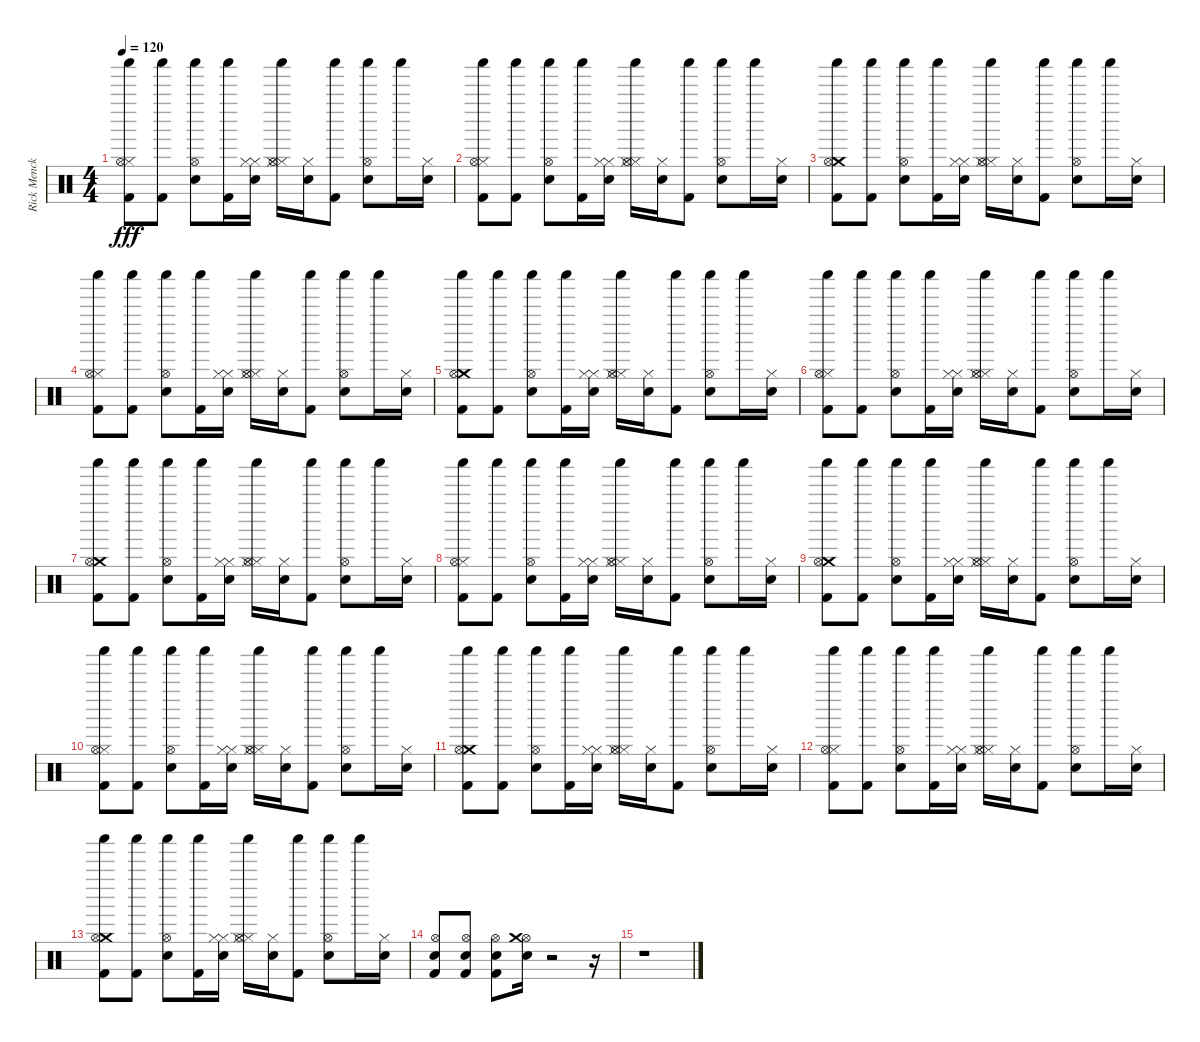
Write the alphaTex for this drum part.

\track ("Rick Menck" "Rick Menck") {instrument percussion}
\staff {score}
\articulation defaults
\ts (4 4)
\tempo 120
\clef neutral
\ks c
("Shaker (hit)" "Kick (hit) 2" "Hi-Hat (closed)" "Hi-Hat (open)").8{dy fff} ("Shaker (hit)" "Kick (hit) 2").8 ("Shaker (hit)" "Snare (hit) 2" "Hi-Hat (open)").8 ("Shaker (hit)" "Kick (hit) 2").16 ("Hi-Hat (closed)" "Snare (hit) 2" "Hi-Hat (closed)").16 ("Shaker (hit)" "Hi-Hat (closed)" "Hi-Hat (open)" "Hi-Hat (closed)").16 ("Hi-Hat (closed)" "Snare (hit) 2").16 ("Shaker (hit)" "Kick (hit) 2").8 ("Shaker (hit)" "Snare (hit) 2" "Hi-Hat (open)").8 "Shaker (hit)".16 ("Hi-Hat (closed)" "Snare (hit) 2").16 |
("Shaker (hit)" "Kick (hit) 2" "Hi-Hat (closed)" "Hi-Hat (open)").8 ("Shaker (hit)" "Kick (hit) 2").8 ("Shaker (hit)" "Snare (hit) 2" "Hi-Hat (open)").8 ("Shaker (hit)" "Kick (hit) 2").16 ("Hi-Hat (closed)" "Snare (hit) 2" "Hi-Hat (closed)").16 ("Shaker (hit)" "Hi-Hat (closed)" "Hi-Hat (open)" "Hi-Hat (closed)").16 ("Hi-Hat (closed)" "Snare (hit) 2").16 ("Shaker (hit)" "Kick (hit) 2").8 ("Shaker (hit)" "Snare (hit) 2" "Hi-Hat (open)").8 "Shaker (hit)".16 ("Hi-Hat (closed)" "Snare (hit) 2").16 |
("Shaker (hit)" "Kick (hit) 2" "Crash medium (hit)" "Hi-Hat (open)").8 ("Shaker (hit)" "Kick (hit) 2").8 ("Shaker (hit)" "Snare (hit) 2" "Hi-Hat (open)").8 ("Shaker (hit)" "Kick (hit) 2").16 ("Hi-Hat (closed)" "Snare (hit) 2" "Hi-Hat (closed)").16 ("Shaker (hit)" "Hi-Hat (closed)" "Hi-Hat (open)" "Hi-Hat (closed)").16 ("Hi-Hat (closed)" "Snare (hit) 2").16 ("Shaker (hit)" "Kick (hit) 2").8 ("Shaker (hit)" "Snare (hit) 2" "Hi-Hat (open)").8 "Shaker (hit)".16 ("Hi-Hat (closed)" "Snare (hit) 2").16 |
("Shaker (hit)" "Kick (hit) 2" "Hi-Hat (closed)" "Hi-Hat (open)").8 ("Shaker (hit)" "Kick (hit) 2").8 ("Shaker (hit)" "Snare (hit) 2" "Hi-Hat (open)").8 ("Shaker (hit)" "Kick (hit) 2").16 ("Hi-Hat (closed)" "Snare (hit) 2" "Hi-Hat (closed)").16 ("Shaker (hit)" "Hi-Hat (closed)" "Hi-Hat (open)" "Hi-Hat (closed)").16 ("Hi-Hat (closed)" "Snare (hit) 2").16 ("Shaker (hit)" "Kick (hit) 2").8 ("Shaker (hit)" "Snare (hit) 2" "Hi-Hat (open)").8 "Shaker (hit)".16 ("Hi-Hat (closed)" "Snare (hit) 2").16 |
("Shaker (hit)" "Kick (hit) 2" "Crash medium (hit)" "Hi-Hat (open)").8 ("Shaker (hit)" "Kick (hit) 2").8 ("Shaker (hit)" "Snare (hit) 2" "Hi-Hat (open)").8 ("Shaker (hit)" "Kick (hit) 2").16 ("Hi-Hat (closed)" "Snare (hit) 2" "Hi-Hat (closed)").16 ("Shaker (hit)" "Hi-Hat (closed)" "Hi-Hat (open)" "Hi-Hat (closed)").16 ("Hi-Hat (closed)" "Snare (hit) 2").16 ("Shaker (hit)" "Kick (hit) 2").8 ("Shaker (hit)" "Snare (hit) 2" "Hi-Hat (open)").8 "Shaker (hit)".16 ("Hi-Hat (closed)" "Snare (hit) 2").16 |
("Shaker (hit)" "Kick (hit) 2" "Hi-Hat (closed)" "Hi-Hat (open)").8 ("Shaker (hit)" "Kick (hit) 2").8 ("Shaker (hit)" "Snare (hit) 2" "Hi-Hat (open)").8 ("Shaker (hit)" "Kick (hit) 2").16 ("Hi-Hat (closed)" "Snare (hit) 2" "Hi-Hat (closed)").16 ("Shaker (hit)" "Hi-Hat (closed)" "Hi-Hat (open)" "Hi-Hat (closed)").16 ("Hi-Hat (closed)" "Snare (hit) 2").16 ("Shaker (hit)" "Kick (hit) 2").8 ("Shaker (hit)" "Snare (hit) 2" "Hi-Hat (open)").8 "Shaker (hit)".16 ("Hi-Hat (closed)" "Snare (hit) 2").16 |
("Shaker (hit)" "Kick (hit) 2" "Crash medium (hit)" "Hi-Hat (open)").8 ("Shaker (hit)" "Kick (hit) 2").8 ("Shaker (hit)" "Snare (hit) 2" "Hi-Hat (open)").8 ("Shaker (hit)" "Kick (hit) 2").16 ("Hi-Hat (closed)" "Snare (hit) 2" "Hi-Hat (closed)").16 ("Shaker (hit)" "Hi-Hat (closed)" "Hi-Hat (open)" "Hi-Hat (closed)").16 ("Hi-Hat (closed)" "Snare (hit) 2").16 ("Shaker (hit)" "Kick (hit) 2").8 ("Shaker (hit)" "Snare (hit) 2" "Hi-Hat (open)").8 "Shaker (hit)".16 ("Hi-Hat (closed)" "Snare (hit) 2").16 |
("Shaker (hit)" "Kick (hit) 2" "Hi-Hat (closed)" "Hi-Hat (open)").8 ("Shaker (hit)" "Kick (hit) 2").8 ("Shaker (hit)" "Snare (hit) 2" "Hi-Hat (open)").8 ("Shaker (hit)" "Kick (hit) 2").16 ("Hi-Hat (closed)" "Snare (hit) 2" "Hi-Hat (closed)").16 ("Shaker (hit)" "Hi-Hat (closed)" "Hi-Hat (open)" "Hi-Hat (closed)").16 ("Hi-Hat (closed)" "Snare (hit) 2").16 ("Shaker (hit)" "Kick (hit) 2").8 ("Shaker (hit)" "Snare (hit) 2" "Hi-Hat (open)").8 "Shaker (hit)".16 ("Hi-Hat (closed)" "Snare (hit) 2").16 |
("Shaker (hit)" "Kick (hit) 2" "Crash medium (hit)" "Hi-Hat (open)").8 ("Shaker (hit)" "Kick (hit) 2").8 ("Shaker (hit)" "Snare (hit) 2" "Hi-Hat (open)").8 ("Shaker (hit)" "Kick (hit) 2").16 ("Hi-Hat (closed)" "Snare (hit) 2" "Hi-Hat (closed)").16 ("Shaker (hit)" "Hi-Hat (closed)" "Hi-Hat (open)" "Hi-Hat (closed)").16 ("Hi-Hat (closed)" "Snare (hit) 2").16 ("Shaker (hit)" "Kick (hit) 2").8 ("Shaker (hit)" "Snare (hit) 2" "Hi-Hat (open)").8 "Shaker (hit)".16 ("Hi-Hat (closed)" "Snare (hit) 2").16 |
("Shaker (hit)" "Kick (hit) 2" "Hi-Hat (closed)" "Hi-Hat (open)").8 ("Shaker (hit)" "Kick (hit) 2").8 ("Shaker (hit)" "Snare (hit) 2" "Hi-Hat (open)").8 ("Shaker (hit)" "Kick (hit) 2").16 ("Hi-Hat (closed)" "Snare (hit) 2" "Hi-Hat (closed)").16 ("Shaker (hit)" "Hi-Hat (closed)" "Hi-Hat (open)" "Hi-Hat (closed)").16 ("Hi-Hat (closed)" "Snare (hit) 2").16 ("Shaker (hit)" "Kick (hit) 2").8 ("Shaker (hit)" "Snare (hit) 2" "Hi-Hat (open)").8 "Shaker (hit)".16 ("Hi-Hat (closed)" "Snare (hit) 2").16 |
("Shaker (hit)" "Kick (hit) 2" "Crash medium (hit)" "Hi-Hat (open)").8 ("Shaker (hit)" "Kick (hit) 2").8 ("Shaker (hit)" "Snare (hit) 2" "Hi-Hat (open)").8 ("Shaker (hit)" "Kick (hit) 2").16 ("Hi-Hat (closed)" "Snare (hit) 2" "Hi-Hat (closed)").16 ("Shaker (hit)" "Hi-Hat (closed)" "Hi-Hat (open)" "Hi-Hat (closed)").16 ("Hi-Hat (closed)" "Snare (hit) 2").16 ("Shaker (hit)" "Kick (hit) 2").8 ("Shaker (hit)" "Snare (hit) 2" "Hi-Hat (open)").8 "Shaker (hit)".16 ("Hi-Hat (closed)" "Snare (hit) 2").16 |
("Shaker (hit)" "Kick (hit) 2" "Hi-Hat (closed)" "Hi-Hat (open)").8 ("Shaker (hit)" "Kick (hit) 2").8 ("Shaker (hit)" "Snare (hit) 2" "Hi-Hat (open)").8 ("Shaker (hit)" "Kick (hit) 2").16 ("Hi-Hat (closed)" "Snare (hit) 2" "Hi-Hat (closed)").16 ("Shaker (hit)" "Hi-Hat (closed)" "Hi-Hat (open)" "Hi-Hat (closed)").16 ("Hi-Hat (closed)" "Snare (hit) 2").16 ("Shaker (hit)" "Kick (hit) 2").8 ("Shaker (hit)" "Snare (hit) 2" "Hi-Hat (open)").8 "Shaker (hit)".16 ("Hi-Hat (closed)" "Snare (hit) 2").16 |
("Shaker (hit)" "Kick (hit) 2" "Crash medium (hit)" "Hi-Hat (open)").8 ("Shaker (hit)" "Kick (hit) 2").8 ("Shaker (hit)" "Snare (hit) 2" "Hi-Hat (open)").8 ("Shaker (hit)" "Kick (hit) 2").16 ("Hi-Hat (closed)" "Snare (hit) 2" "Hi-Hat (closed)").16 ("Shaker (hit)" "Hi-Hat (closed)" "Hi-Hat (open)" "Hi-Hat (closed)").16 ("Hi-Hat (closed)" "Snare (hit) 2").16 ("Shaker (hit)" "Kick (hit) 2").8 ("Shaker (hit)" "Snare (hit) 2" "Hi-Hat (open)").8 "Shaker (hit)".16 ("Hi-Hat (closed)" "Snare (hit) 2").16 |
("Hi-Hat (open)" "Kick (hit) 2" "Snare (hit) 2").8 ("Hi-Hat (open)" "Kick (hit) 2" "Snare (hit) 2").8 ("Hi-Hat (open)" "Kick (hit) 2" "Snare (hit) 2").8 ("Hi-Hat (open)" "Crash medium (hit)" "Snare (hit) 2").16 r.2 r.16 |
r.1
